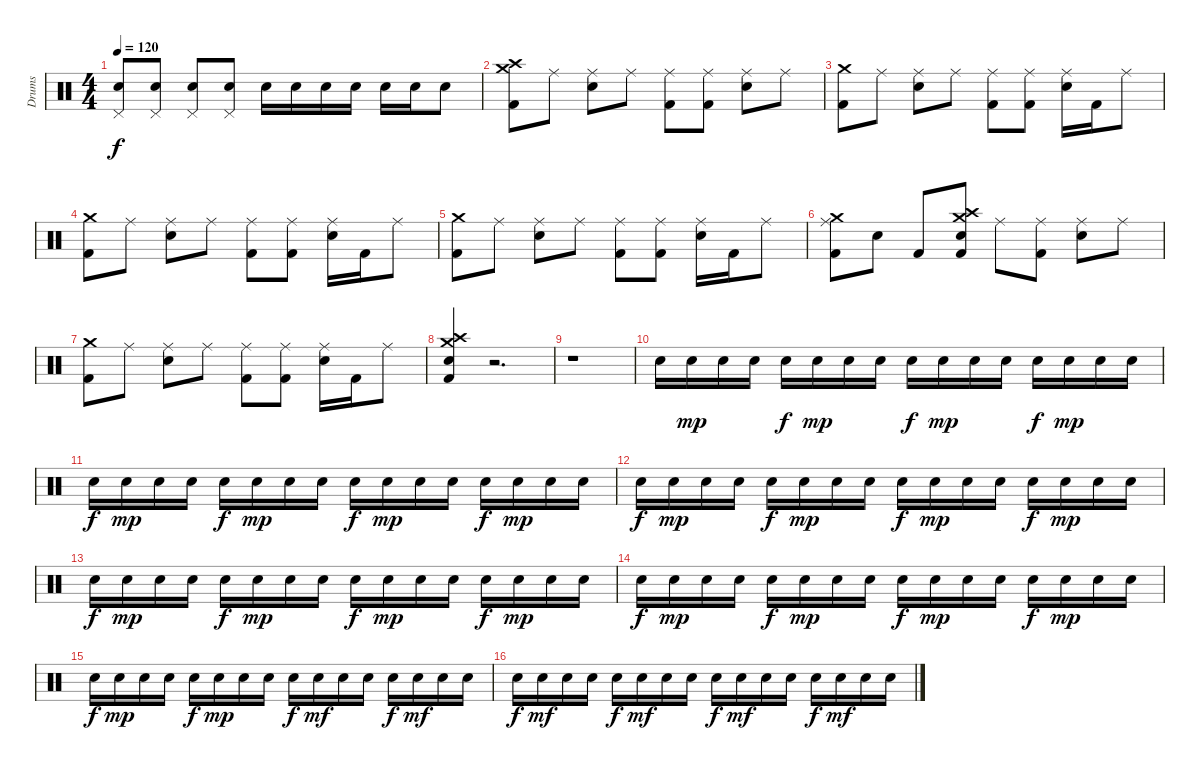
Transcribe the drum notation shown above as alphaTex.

\track ("Drums" "Drums") {instrument percussion}
\staff {score}
\articulation defaults
\ts (4 4)
\tempo 120
\clef neutral
\ks c
("Snare (hit) 2" "Pedal Hi-Hat (hit)").8{dy f} ("Snare (hit) 2" "Pedal Hi-Hat (hit)").8 ("Snare (hit) 2" "Pedal Hi-Hat (hit)").8 ("Snare (hit) 2" "Pedal Hi-Hat (hit)").8 "Snare (hit) 2".16 "Snare (hit) 2".16 "Snare (hit) 2".16 "Snare (hit) 2".16 "Snare (hit) 2".16 "Snare (hit) 2".16 "Snare (hit) 2".8 |
("Crash high (hit)" "Crash medium (hit)" "Kick (hit) 2").8 "Ride (middle)".8 ("Ride (middle)" "Snare (hit) 2").8 "Ride (middle)".8 ("Ride (middle)" "Kick (hit) 2").8 ("Ride (middle)" "Kick (hit) 2").8 ("Ride (middle)" "Snare (hit) 2").8 "Ride (middle)".8 |
("Kick (hit) 2" "Crash medium (hit)").8 "Ride (middle)".8 ("Ride (middle)" "Snare (hit) 2").8 "Ride (middle)".8 ("Ride (middle)" "Kick (hit) 2").8 ("Ride (middle)" "Kick (hit) 2").8 ("Ride (middle)" "Snare (hit) 2").16 "Kick (hit) 2".16 "Ride (middle)".8 |
("Kick (hit) 2" "Crash medium (hit)").8 "Ride (middle)".8 ("Ride (middle)" "Snare (hit) 2").8 "Ride (middle)".8 ("Ride (middle)" "Kick (hit) 2").8 ("Ride (middle)" "Kick (hit) 2").8 ("Ride (middle)" "Snare (hit) 2").16 "Kick (hit) 2".16 "Ride (middle)".8 |
("Crash medium (hit)" "Kick (hit) 2").8 "Ride (middle)".8 ("Ride (middle)" "Snare (hit) 2").8 "Ride (middle)".8 ("Ride (middle)" "Kick (hit) 2").8 ("Ride (middle)" "Kick (hit) 2").8 ("Ride (middle)" "Snare (hit) 2").16 "Kick (hit) 2".16 "Ride (middle)".8 |
("Crash medium (hit)" "Kick (hit) 2" "Ride (middle)").8 "Snare (hit) 2".8 "Kick (hit) 2".8 ("Crash medium (hit)" "Kick (hit) 2" "Snare (hit) 2" "Crash high (hit)").8 "Ride (middle)".8 ("Ride (middle)" "Kick (hit) 2").8 ("Ride (middle)" "Snare (hit) 2").8 "Ride (middle)".8 |
("Kick (hit) 2" "Crash medium (hit)").8 "Ride (middle)".8 ("Ride (middle)" "Snare (hit) 2").8 "Ride (middle)".8 ("Ride (middle)" "Kick (hit) 2").8 ("Ride (middle)" "Kick (hit) 2").8 ("Ride (middle)" "Snare (hit) 2").16 "Kick (hit) 2".16 "Ride (middle)".8 |
("Crash medium (hit)" "Crash high (hit)" "Snare (hit) 2" "Kick (hit) 2").4 r.2{d} |
r.1 |
"Snare (hit) 2".16 "Snare (hit) 2".16{dy mp} "Snare (hit) 2".16 "Snare (hit) 2".16 "Snare (hit) 2".16{dy f} "Snare (hit) 2".16{dy mp} "Snare (hit) 2".16 "Snare (hit) 2".16 "Snare (hit) 2".16{dy f} "Snare (hit) 2".16{dy mp} "Snare (hit) 2".16 "Snare (hit) 2".16 "Snare (hit) 2".16{dy f} "Snare (hit) 2".16{dy mp} "Snare (hit) 2".16 "Snare (hit) 2".16 |
"Snare (hit) 2".16{dy f} "Snare (hit) 2".16{dy mp} "Snare (hit) 2".16 "Snare (hit) 2".16 "Snare (hit) 2".16{dy f} "Snare (hit) 2".16{dy mp} "Snare (hit) 2".16 "Snare (hit) 2".16 "Snare (hit) 2".16{dy f} "Snare (hit) 2".16{dy mp} "Snare (hit) 2".16 "Snare (hit) 2".16 "Snare (hit) 2".16{dy f} "Snare (hit) 2".16{dy mp} "Snare (hit) 2".16 "Snare (hit) 2".16 |
"Snare (hit) 2".16{dy f} "Snare (hit) 2".16{dy mp} "Snare (hit) 2".16 "Snare (hit) 2".16 "Snare (hit) 2".16{dy f} "Snare (hit) 2".16{dy mp} "Snare (hit) 2".16 "Snare (hit) 2".16 "Snare (hit) 2".16{dy f} "Snare (hit) 2".16{dy mp} "Snare (hit) 2".16 "Snare (hit) 2".16 "Snare (hit) 2".16{dy f} "Snare (hit) 2".16{dy mp} "Snare (hit) 2".16 "Snare (hit) 2".16 |
"Snare (hit) 2".16{dy f} "Snare (hit) 2".16{dy mp} "Snare (hit) 2".16 "Snare (hit) 2".16 "Snare (hit) 2".16{dy f} "Snare (hit) 2".16{dy mp} "Snare (hit) 2".16 "Snare (hit) 2".16 "Snare (hit) 2".16{dy f} "Snare (hit) 2".16{dy mp} "Snare (hit) 2".16 "Snare (hit) 2".16 "Snare (hit) 2".16{dy f} "Snare (hit) 2".16{dy mp} "Snare (hit) 2".16 "Snare (hit) 2".16 |
"Snare (hit) 2".16{dy f} "Snare (hit) 2".16{dy mp} "Snare (hit) 2".16 "Snare (hit) 2".16 "Snare (hit) 2".16{dy f} "Snare (hit) 2".16{dy mp} "Snare (hit) 2".16 "Snare (hit) 2".16 "Snare (hit) 2".16{dy f} "Snare (hit) 2".16{dy mp} "Snare (hit) 2".16 "Snare (hit) 2".16 "Snare (hit) 2".16{dy f} "Snare (hit) 2".16{dy mp} "Snare (hit) 2".16 "Snare (hit) 2".16 |
"Snare (hit) 2".16{dy f} "Snare (hit) 2".16{dy mp} "Snare (hit) 2".16 "Snare (hit) 2".16 "Snare (hit) 2".16{dy f} "Snare (hit) 2".16{dy mp} "Snare (hit) 2".16 "Snare (hit) 2".16 "Snare (hit) 2".16{dy f} "Snare (hit) 2".16{dy mf} "Snare (hit) 2".16 "Snare (hit) 2".16 "Snare (hit) 2".16{dy f} "Snare (hit) 2".16{dy mf} "Snare (hit) 2".16 "Snare (hit) 2".16 |
"Snare (hit) 2".16{dy f} "Snare (hit) 2".16{dy mf} "Snare (hit) 2".16 "Snare (hit) 2".16 "Snare (hit) 2".16{dy f} "Snare (hit) 2".16{dy mf} "Snare (hit) 2".16 "Snare (hit) 2".16 "Snare (hit) 2".16{dy f} "Snare (hit) 2".16{dy mf} "Snare (hit) 2".16 "Snare (hit) 2".16 "Snare (hit) 2".16{dy f} "Snare (hit) 2".16{dy mf} "Snare (hit) 2".16 "Snare (hit) 2".16
